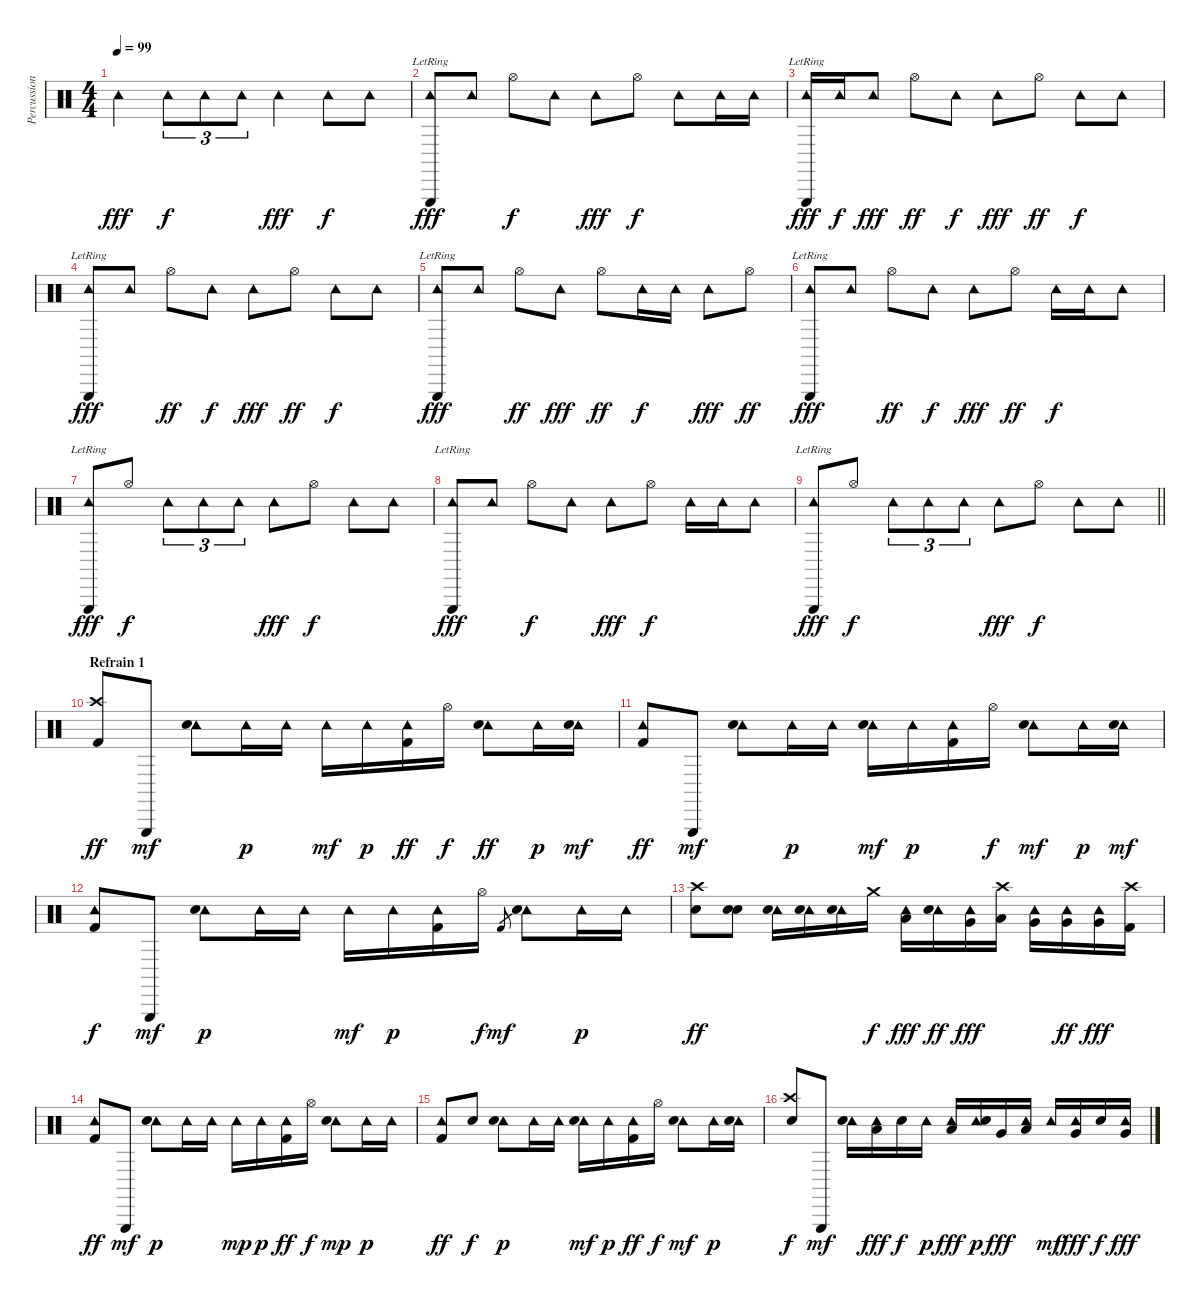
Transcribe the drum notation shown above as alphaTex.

\track ("Percussion" "Percussion") {instrument percussion}
\staff {score}
\articulation defaults
\ts (4 4)
\tempo 99
\clef neutral
\ks c "Tambourine (hit)".4{dy fff} "Tambourine (hit)".8{tu (3 2) dy f} "Tambourine (hit)".8{tu (3 2)} "Tambourine (hit)".8{tu (3 2)} "Tambourine (hit)".4{dy fff} "Tambourine (hit)".8{dy f} "Tambourine (hit)".8
|
("Tambourine (hit)" "Triangle (hit)"{lr}).8{dy fff} "Tambourine (hit)".8 "Hi-Hat (open)".8{dy f} "Tambourine (hit)".8 "Tambourine (hit)".8{dy fff} "Hi-Hat (open)".8{dy f} "Tambourine (hit)".8 "Tambourine (hit)".16 "Tambourine (hit)".16 |
("Tambourine (hit)" "Triangle (hit)"{lr}).16{dy fff} "Tambourine (hit)".16{dy f} "Tambourine (hit)".8{dy fff} "Hi-Hat (open)".8{dy ff} "Tambourine (hit)".8{dy f} "Tambourine (hit)".8{dy fff} "Hi-Hat (open)".8{dy ff} "Tambourine (hit)".8{dy f} "Tambourine (hit)".8 |
("Tambourine (hit)" "Triangle (hit)"{lr}).8{dy fff} "Tambourine (hit)".8 "Hi-Hat (open)".8{dy ff} "Tambourine (hit)".8{dy f} "Tambourine (hit)".8{dy fff} "Hi-Hat (open)".8{dy ff} "Tambourine (hit)".8{dy f} "Tambourine (hit)".8 |
("Tambourine (hit)" "Triangle (hit)"{lr}).8{dy fff} "Tambourine (hit)".8 "Hi-Hat (open)".8{dy ff} "Tambourine (hit)".8{dy fff} "Hi-Hat (open)".8{dy ff} "Tambourine (hit)".16{dy f} "Tambourine (hit)".16 "Tambourine (hit)".8{dy fff} "Hi-Hat (open)".8{dy ff} |
("Tambourine (hit)" "Triangle (hit)"{lr}).8{dy fff} "Tambourine (hit)".8 "Hi-Hat (open)".8{dy ff} "Tambourine (hit)".8{dy f} "Tambourine (hit)".8{dy fff} "Hi-Hat (open)".8{dy ff} "Tambourine (hit)".16{dy f} "Tambourine (hit)".16 "Tambourine (hit)".8 |
("Tambourine (hit)" "Triangle (hit)"{lr}).8{dy fff} "Hi-Hat (open)".8{dy f} "Tambourine (hit)".8{tu (3 2)} "Tambourine (hit)".8{tu (3 2)} "Tambourine (hit)".8{tu (3 2)} "Tambourine (hit)".8{dy fff} "Hi-Hat (open)".8{dy f} "Tambourine (hit)".8 "Tambourine (hit)".8 |
("Tambourine (hit)" "Triangle (hit)"{lr}).8{dy fff} "Tambourine (hit)".8 "Hi-Hat (open)".8{dy f} "Tambourine (hit)".8 "Tambourine (hit)".8{dy fff} "Hi-Hat (open)".8{dy f} "Tambourine (hit)".16 "Tambourine (hit)".16 "Tambourine (hit)".8 |
\barLineRight lightlight
("Tambourine (hit)" "Triangle (hit)"{lr}).8{dy fff} "Hi-Hat (open)".8{dy f} "Tambourine (hit)".8{tu (3 2)} "Tambourine (hit)".8{tu (3 2)} "Tambourine (hit)".8{tu (3 2)} "Tambourine (hit)".8{dy fff} "Hi-Hat (open)".8{dy f} "Tambourine (hit)".8 "Tambourine (hit)".8 |
\section ("" "Refrain 1")
("Crash high (hit)" "Kick (hit) 2").8{dy ff volume 8} "Triangle (hit)".8{dy mf} ("Tambourine (hit)" "Snare (hit) 2").8 "Tambourine (hit)".16{dy p} "Tambourine (hit)".16 "Tambourine (hit)".16{dy mf} "Tambourine (hit)".16{dy p} ("Tambourine (hit)" "Kick (hit) 2").16{dy ff} "Hi-Hat (open)".16{dy f} ("Tambourine (hit)" "Snare (hit) 2").8{dy ff} "Tambourine (hit)".16{dy p} ("Tambourine (hit)" "Electric Snare (hit)").16{dy mf} |
("Tambourine (hit)" "Kick (hit) 2").8{dy ff} "Triangle (hit)".8{dy mf} ("Tambourine (hit)" "Snare (hit) 2").8 "Tambourine (hit)".16{dy p} "Tambourine (hit)".16 ("Tambourine (hit)" "Snare (hit) 2").16{dy mf} "Tambourine (hit)".16{dy p} ("Tambourine (hit)" "Kick (hit) 2").16 "Hi-Hat (open)".16{dy f} ("Tambourine (hit)" "Snare (hit) 2").8{dy mf} "Tambourine (hit)".16{dy p} ("Tambourine (hit)" "Electric Snare (hit)").16{dy mf} |
("Tambourine (hit)" "Kick (hit) 2").8{dy f} "Triangle (hit)".8{dy mf} ("Tambourine (hit)" "Snare (hit) 2").8{dy p} "Tambourine (hit)".16 "Tambourine (hit)".16 "Tambourine (hit)".16{dy mf} "Tambourine (hit)".16{dy p} ("Tambourine (hit)" "Kick (hit) 2").16 "Hi-Hat (open)".16{dy f} "Kick (hit) 2".8{gr dy mf} ("Tambourine (hit)" "Snare (hit) 2").8 "Tambourine (hit)".16{dy p} "Tambourine (hit)".16 |
("Crash high (hit)" "Snare (hit) 2").8{dy ff} ("Metronome (bell)" "Electric Snare (hit)").8 ("Tambourine (hit)" "Electric Snare (hit)").16 ("Tambourine (hit)" "Electric Snare (hit)").16 ("Tambourine (hit)" "Electric Snare (hit)").16 "Crash medium (hit)".16{dy f} ("Tambourine (hit)" "Low Tom (hit)").16{dy fff} ("Tambourine (hit)" "Electric Snare (hit)").16{dy ff} ("Tambourine (hit)" "Very Low Tom (hit)").16{dy fff} ("Crash high (hit)"{pm} "Low Tom (hit)").16 ("Tambourine (hit)" "Very Low Tom (hit)").16{volume 16} ("Tambourine (hit)" "Very Low Tom (hit)").16{dy ff} ("Tambourine (hit)" "Very Low Tom (hit)").16{dy fff} ("Crash high (hit)" "Kick (hit) 2").16 |
("Tambourine (hit)" "Kick (hit) 2").8{dy ff volume 9} "Triangle (hit)".8{dy mf} ("Tambourine (hit)" "Snare (hit) 2").8{dy p} "Tambourine (hit)".16 "Tambourine (hit)".16 "Tambourine (hit)".16{dy mp} "Tambourine (hit)".16{dy p} ("Tambourine (hit)" "Kick (hit) 2").16{dy ff} "Hi-Hat (open)".16{dy f} ("Tambourine (hit)" "Snare (hit) 2").8{dy mp} "Tambourine (hit)".16{dy p} "Tambourine (hit)".16 |
("Tambourine (hit)" "Kick (hit) 2").8{dy ff} "Metronome (bell)".8{dy f} ("Tambourine (hit)" "Snare (hit) 2").8{dy p} "Tambourine (hit)".16 "Tambourine (hit)".16 ("Tambourine (hit)" "Snare (hit) 2").16{dy mf} "Tambourine (hit)".16{dy p} ("Tambourine (hit)" "Kick (hit) 2").16{dy ff} "Hi-Hat (open)".16{dy f} ("Tambourine (hit)" "Snare (hit) 2").8{dy mf} "Tambourine (hit)".16{dy p} ("Tambourine (hit)" "Electric Snare (hit)").16 |
("Crash high (hit)" "Snare (hit) 2").8{dy f} "Triangle (hit)".8{dy mf} ("Tambourine (hit)" "Electric Snare (hit)").16 ("Tambourine (hit)" "Low Tom (hit)").16{dy fff} "Electric Snare (hit)".16{dy f} "Tambourine (hit)".16{dy p} ("Tambourine (hit)" "Low Tom (hit)").16{dy fff} ("Tambourine (hit)" "Electric Snare (hit)").16{dy p} "Very Low Tom (hit)".16{dy fff} ("Tambourine (hit)" "Low Tom (hit)").16 "Tambourine (hit)".16{dy mf} ("Tambourine (hit)" "Very Low Tom (hit)").16{dy fff} "Electric Snare (hit)".16{dy f} ("Tambourine (hit)" "Very Low Tom (hit)").16{dy fff}
